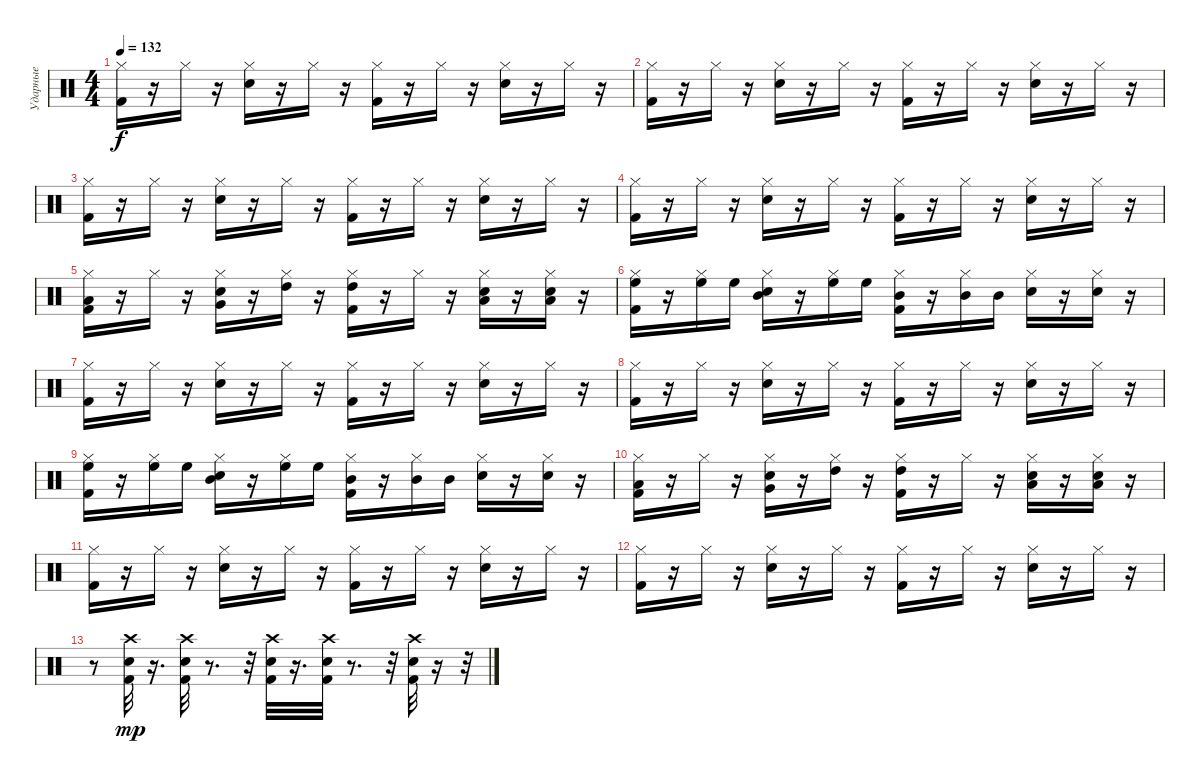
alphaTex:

\track ("Ударные" "Ударные") {instrument percussion}
\staff {score}
\articulation defaults
\ts (4 4)
\tempo 132
\clef neutral
\ks c
("Kick (hit) 2" "Hi-Hat (closed)").16{dy f} r.16 "Hi-Hat (closed)".16 r.16 ("Snare (hit) 2" "Hi-Hat (closed)").16 r.16 "Hi-Hat (closed)".16 r.16 ("Kick (hit) 2" "Hi-Hat (closed)").16 r.16 "Hi-Hat (closed)".16 r.16 ("Snare (hit) 2" "Hi-Hat (closed)").16 r.16 "Hi-Hat (closed)".16 r.16 |
("Kick (hit) 2" "Hi-Hat (closed)").16 r.16 "Hi-Hat (closed)".16 r.16 ("Snare (hit) 2" "Hi-Hat (closed)").16 r.16 "Hi-Hat (closed)".16 r.16 ("Kick (hit) 2" "Hi-Hat (closed)").16 r.16 "Hi-Hat (closed)".16 r.16 ("Snare (hit) 2" "Hi-Hat (closed)").16 r.16 "Hi-Hat (closed)".16 r.16 |
("Kick (hit) 2" "Hi-Hat (closed)").16 r.16 "Hi-Hat (closed)".16 r.16 ("Snare (hit) 2" "Hi-Hat (closed)").16 r.16 "Hi-Hat (closed)".16 r.16 ("Kick (hit) 2" "Hi-Hat (closed)").16 r.16 "Hi-Hat (closed)".16 r.16 ("Snare (hit) 2" "Hi-Hat (closed)").16 r.16 "Hi-Hat (closed)".16 r.16 |
("Kick (hit) 2" "Hi-Hat (closed)").16 r.16 "Hi-Hat (closed)".16 r.16 ("Snare (hit) 2" "Hi-Hat (closed)").16 r.16 "Hi-Hat (closed)".16 r.16 ("Kick (hit) 2" "Hi-Hat (closed)").16 r.16 "Hi-Hat (closed)".16 r.16 ("Snare (hit) 2" "Hi-Hat (closed)").16 r.16 "Hi-Hat (closed)".16 r.16 |
("Kick (hit) 2" "Low Tom (hit)" "Hi-Hat (closed)").16 r.16 "Hi-Hat (closed)".16 r.16 ("Snare (hit) 2" "Very Low Tom (hit)" "Hi-Hat (closed)").16 r.16 ("High Tom (hit)" "Hi-Hat (closed)").16 r.16 ("Kick (hit) 2" "High Tom (hit)" "Hi-Hat (closed)").16 r.16 "Hi-Hat (closed)".16 r.16 ("Snare (hit) 2" "Low Floor Tom (hit)" "Hi-Hat (closed)").16 r.16 ("Snare (hit) 2" "Low Floor Tom (hit)" "Hi-Hat (closed)").16 r.16 |
("Kick (hit) 2" "High Floor Tom (hit)" "Hi-Hat (closed)").16 r.16 ("High Floor Tom (hit)" "Hi-Hat (closed)").16 "High Floor Tom (hit)".16 ("Snare (hit) 2" "Mid Tom (hit)" "Hi-Hat (closed)").16 r.16 ("High Floor Tom (hit)" "Hi-Hat (closed)").16 "High Floor Tom (hit)".16 ("Kick (hit) 2" "Mid Tom (hit)" "Hi-Hat (closed)").16 r.16 ("Mid Tom (hit)" "Hi-Hat (closed)").16 "Mid Tom (hit)".16 ("Snare (hit) 2" "Hi-Hat (closed)").16 r.16 ("Snare (hit) 2" "Hi-Hat (closed)").16 r.16 |
("Kick (hit) 2" "Hi-Hat (closed)").16 r.16 "Hi-Hat (closed)".16 r.16 ("Snare (hit) 2" "Hi-Hat (closed)").16 r.16 "Hi-Hat (closed)".16 r.16 ("Kick (hit) 2" "Hi-Hat (closed)").16 r.16 "Hi-Hat (closed)".16 r.16 ("Snare (hit) 2" "Hi-Hat (closed)").16 r.16 "Hi-Hat (closed)".16 r.16 |
("Kick (hit) 2" "Hi-Hat (closed)").16 r.16 "Hi-Hat (closed)".16 r.16 ("Snare (hit) 2" "Hi-Hat (closed)").16 r.16 "Hi-Hat (closed)".16 r.16 ("Kick (hit) 2" "Hi-Hat (closed)").16 r.16 "Hi-Hat (closed)".16 r.16 ("Snare (hit) 2" "Hi-Hat (closed)").16 r.16 "Hi-Hat (closed)".16 r.16 |
("Kick (hit) 2" "High Floor Tom (hit)" "Hi-Hat (closed)").16 r.16 ("High Floor Tom (hit)" "Hi-Hat (closed)").16 "High Floor Tom (hit)".16 ("Snare (hit) 2" "Mid Tom (hit)" "Hi-Hat (closed)").16 r.16 ("High Floor Tom (hit)" "Hi-Hat (closed)").16 "High Floor Tom (hit)".16 ("Kick (hit) 2" "Mid Tom (hit)" "Hi-Hat (closed)").16 r.16 ("Mid Tom (hit)" "Hi-Hat (closed)").16 "Mid Tom (hit)".16 ("Snare (hit) 2" "Hi-Hat (closed)").16 r.16 ("Snare (hit) 2" "Hi-Hat (closed)").16 r.16 |
("Kick (hit) 2" "Low Tom (hit)" "Hi-Hat (closed)").16 r.16 "Hi-Hat (closed)".16 r.16 ("Snare (hit) 2" "Very Low Tom (hit)" "Hi-Hat (closed)").16 r.16 ("High Tom (hit)" "Hi-Hat (closed)").16 r.16 ("Kick (hit) 2" "High Tom (hit)" "Hi-Hat (closed)").16 r.16 "Hi-Hat (closed)".16 r.16 ("Snare (hit) 2" "Low Floor Tom (hit)" "Hi-Hat (closed)").16 r.16 ("Snare (hit) 2" "Low Floor Tom (hit)" "Hi-Hat (closed)").16 r.16 |
("Kick (hit) 2" "Hi-Hat (closed)").16 r.16 "Hi-Hat (closed)".16 r.16 ("Snare (hit) 2" "Hi-Hat (closed)").16 r.16 "Hi-Hat (closed)".16 r.16 ("Kick (hit) 2" "Hi-Hat (closed)").16 r.16 "Hi-Hat (closed)".16 r.16 ("Snare (hit) 2" "Hi-Hat (closed)").16 r.16 "Hi-Hat (closed)".16 r.16 |
("Kick (hit) 2" "Hi-Hat (closed)").16 r.16 "Hi-Hat (closed)".16 r.16 ("Snare (hit) 2" "Hi-Hat (closed)").16 r.16 "Hi-Hat (closed)".16 r.16 ("Kick (hit) 2" "Hi-Hat (closed)").16 r.16 "Hi-Hat (closed)".16 r.16 ("Snare (hit) 2" "Hi-Hat (closed)").16 r.16 "Hi-Hat (closed)".16 r.16 |
r.8 ("Kick (hit) 2" "Snare (hit) 2" "Crash high (hit)").32{dy mp} r.16{d} ("Kick (hit) 2" "Snare (hit) 2" "Crash high (hit)").32 r.8{d} r.32 ("Kick (hit) 2" "Snare (hit) 2" "Crash high (hit)").32 r.16{d} ("Kick (hit) 2" "Snare (hit) 2" "Crash high (hit)").32 r.8{d} r.32 ("Kick (hit) 2" "Snare (hit) 2" "Crash high (hit)").32 r.16 r.32
